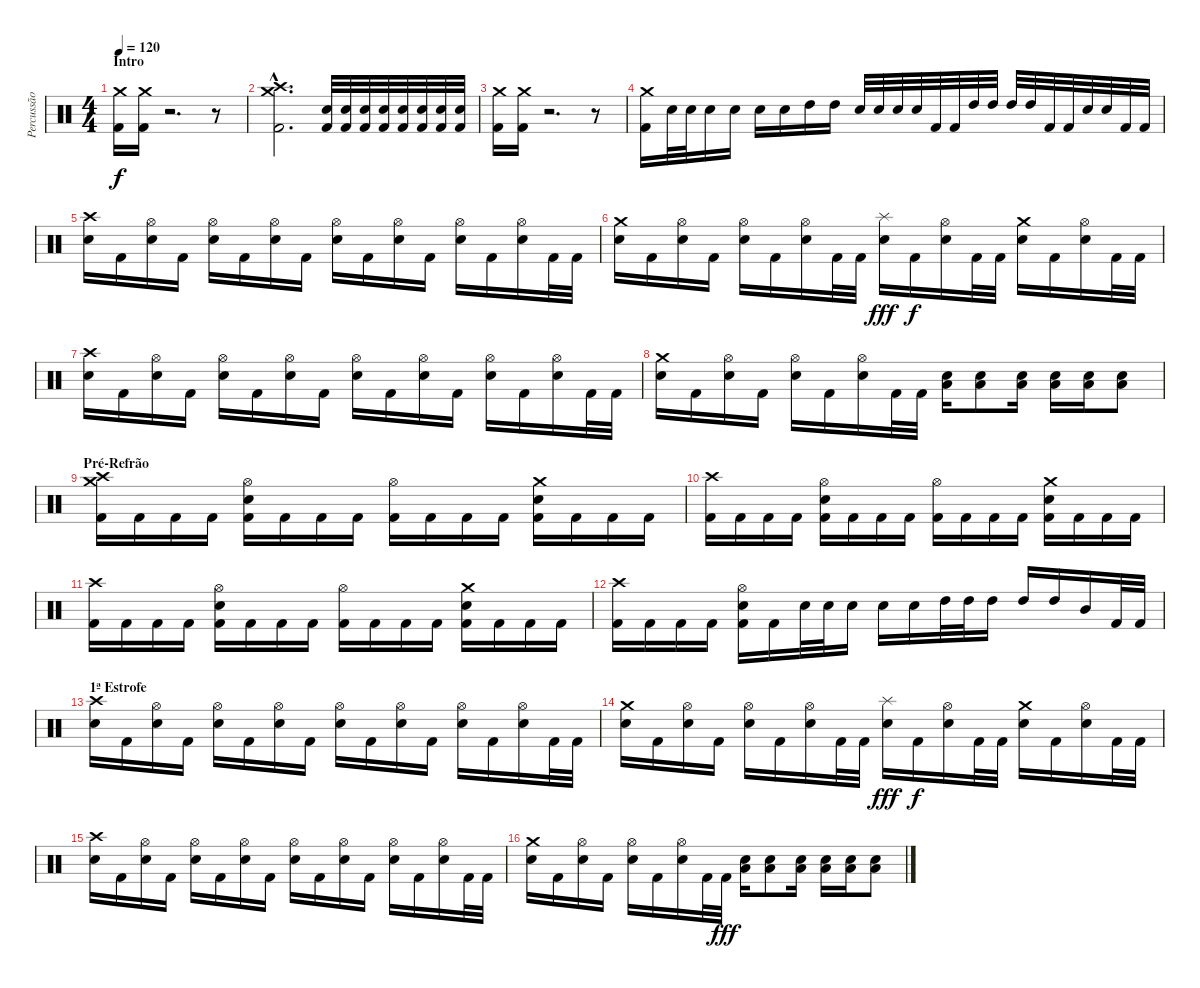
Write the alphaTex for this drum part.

\track ("Percussão" "Percussão") {instrument percussion}
\staff {score}
\articulation defaults
\ts (4 4)
\section ("" "Intro")
\tempo 120
\clef neutral
\ks c
("Crash medium (hit)" "Kick (hit) 2").16{dy f} ("Crash medium (hit)" "Kick (hit) 2").16 r.2{d volume 10} r.8 |
("Crash medium (hit)"{hac} "Crash high (hit)"{hac} "Kick (hit) 2"{hac}).2{d volume 16} ("Electric Snare (hit)" "Kick (hit) 2").32 ("Electric Snare (hit)" "Kick (hit) 2").32 ("Electric Snare (hit)" "Kick (hit) 2").32 ("Electric Snare (hit)" "Kick (hit) 2").32 ("Electric Snare (hit)" "Kick (hit) 2").32 ("Electric Snare (hit)" "Kick (hit) 2").32 ("Electric Snare (hit)" "Kick (hit) 2").32 ("Electric Snare (hit)" "Kick (hit) 2").32 |
("Crash medium (hit)" "Kick (hit) 2").16 ("Crash medium (hit)" "Kick (hit) 2").16 r.2{d volume 10} r.8 |
("Crash medium (hit)" "Kick (hit) 2").16{volume 16} "Electric Snare (hit)".32 "Electric Snare (hit)".32 "Electric Snare (hit)".16 "Electric Snare (hit)".16 "Electric Snare (hit)".16 "Electric Snare (hit)".16 "High Tom (hit)".16 "High Tom (hit)".16 "Electric Snare (hit)".32 "Electric Snare (hit)".32 "Electric Snare (hit)".32 "Electric Snare (hit)".32 "Kick (hit) 2".32 "Kick (hit) 2".32 "High Tom (hit)".32 "High Tom (hit)".32 "High Tom (hit)".32 "High Tom (hit)".32 "Kick (hit) 2".32 "Kick (hit) 2".32 "Electric Snare (hit)".32 "Electric Snare (hit)".32 "Kick (hit) 2".32 "Kick (hit) 2".32 |
("Crash high (hit)" "Electric Snare (hit)").16 "Kick (hit) 2".16 ("Hi-Hat (open)" "Electric Snare (hit)").16 "Kick (hit) 2".16 ("Hi-Hat (open)" "Electric Snare (hit)").16 "Kick (hit) 2".16 ("Hi-Hat (open)" "Electric Snare (hit)").16 "Kick (hit) 2".16 ("Hi-Hat (open)" "Electric Snare (hit)").16 "Kick (hit) 2".16 ("Hi-Hat (open)" "Electric Snare (hit)").16 "Kick (hit) 2".16 ("Hi-Hat (open)" "Electric Snare (hit)").16 "Kick (hit) 2".16 ("Hi-Hat (open)" "Electric Snare (hit)").16 "Kick (hit) 2".32 "Kick (hit) 2".32 |
("Crash medium (hit)" "Electric Snare (hit)").16 "Kick (hit) 2".16 ("Hi-Hat (open)" "Electric Snare (hit)").16 "Kick (hit) 2".16 ("Hi-Hat (open)" "Electric Snare (hit)").16 "Kick (hit) 2".16 ("Hi-Hat (open)" "Electric Snare (hit)").16 "Kick (hit) 2".32 "Kick (hit) 2".32 ("Splash (hit)" "Electric Snare (hit)").16{dy fff} "Kick (hit) 2".16{dy f} ("Hi-Hat (open)" "Electric Snare (hit)").16 "Kick (hit) 2".32 "Kick (hit) 2".32 ("Crash medium (hit)" "Electric Snare (hit)").16 "Kick (hit) 2".16 ("Hi-Hat (open)" "Electric Snare (hit)").16 "Kick (hit) 2".32 "Kick (hit) 2".32 |
("Crash high (hit)" "Electric Snare (hit)").16 "Kick (hit) 2".16 ("Hi-Hat (open)" "Electric Snare (hit)").16 "Kick (hit) 2".16 ("Hi-Hat (open)" "Electric Snare (hit)").16 "Kick (hit) 2".16 ("Hi-Hat (open)" "Electric Snare (hit)").16 "Kick (hit) 2".16 ("Hi-Hat (open)" "Electric Snare (hit)").16 "Kick (hit) 2".16 ("Hi-Hat (open)" "Electric Snare (hit)").16 "Kick (hit) 2".16 ("Hi-Hat (open)" "Electric Snare (hit)").16 "Kick (hit) 2".16 ("Hi-Hat (open)" "Electric Snare (hit)").16 "Kick (hit) 2".32 "Kick (hit) 2".32 |
("Crash medium (hit)" "Electric Snare (hit)").16 "Kick (hit) 2".16 ("Hi-Hat (open)" "Electric Snare (hit)").16 "Kick (hit) 2".16 ("Hi-Hat (open)" "Electric Snare (hit)").16 "Kick (hit) 2".16 ("Hi-Hat (open)" "Electric Snare (hit)").16 "Kick (hit) 2".32 "Kick (hit) 2".32 ("Electric Snare (hit)" "Low Tom (hit)").16 ("Electric Snare (hit)" "Low Tom (hit)").8 ("Electric Snare (hit)" "Low Tom (hit)").16 ("Electric Snare (hit)" "Low Tom (hit)").16 ("Electric Snare (hit)" "Low Tom (hit)").16 ("Electric Snare (hit)" "Low Tom (hit)").8 |
\section ("" "Pré-Refrão")
("Crash medium (hit)" "Crash high (hit)" "Kick (hit) 2").16 "Kick (hit) 2".16 "Kick (hit) 2".16 "Kick (hit) 2".16 ("Hi-Hat (open)" "Electric Snare (hit)" "Kick (hit) 2").16 "Kick (hit) 2".16 "Kick (hit) 2".16 "Kick (hit) 2".16 ("Hi-Hat (open)" "Kick (hit) 2").16 "Kick (hit) 2".16 "Kick (hit) 2".16 "Kick (hit) 2".16 ("Crash medium (hit)" "Electric Snare (hit)" "Kick (hit) 2").16 "Kick (hit) 2".16 "Kick (hit) 2".16 "Kick (hit) 2".16 |
("Crash high (hit)" "Kick (hit) 2").16 "Kick (hit) 2".16 "Kick (hit) 2".16 "Kick (hit) 2".16 ("Hi-Hat (open)" "Electric Snare (hit)" "Kick (hit) 2").16 "Kick (hit) 2".16 "Kick (hit) 2".16 "Kick (hit) 2".16 ("Hi-Hat (open)" "Kick (hit) 2").16 "Kick (hit) 2".16 "Kick (hit) 2".16 "Kick (hit) 2".16 ("Crash medium (hit)" "Electric Snare (hit)" "Kick (hit) 2").16 "Kick (hit) 2".16 "Kick (hit) 2".16 "Kick (hit) 2".16 |
("Crash high (hit)" "Kick (hit) 2").16 "Kick (hit) 2".16 "Kick (hit) 2".16 "Kick (hit) 2".16 ("Hi-Hat (open)" "Electric Snare (hit)" "Kick (hit) 2").16 "Kick (hit) 2".16 "Kick (hit) 2".16 "Kick (hit) 2".16 ("Hi-Hat (open)" "Kick (hit) 2").16 "Kick (hit) 2".16 "Kick (hit) 2".16 "Kick (hit) 2".16 ("Crash medium (hit)" "Electric Snare (hit)" "Kick (hit) 2").16 "Kick (hit) 2".16 "Kick (hit) 2".16 "Kick (hit) 2".16 |
("Crash high (hit)" "Kick (hit) 2").16 "Kick (hit) 2".16 "Kick (hit) 2".16 "Kick (hit) 2".16 ("Hi-Hat (open)" "Electric Snare (hit)" "Kick (hit) 2").16 "Kick (hit) 2".16 "Electric Snare (hit)".32 "Electric Snare (hit)".32 "Electric Snare (hit)".16 "Electric Snare (hit)".16 "Electric Snare (hit)".16 "High Tom (hit)".32 "High Tom (hit)".32 "High Tom (hit)".16 "High Tom (hit)".16 "High Tom (hit)".16 "Mid Tom (hit)".16 "Kick (hit) 2".32 "Kick (hit) 2".32 |
\section ("" "1ª Estrofe")
("Crash high (hit)" "Electric Snare (hit)").16 "Kick (hit) 2".16 ("Hi-Hat (open)" "Electric Snare (hit)").16 "Kick (hit) 2".16 ("Hi-Hat (open)" "Electric Snare (hit)").16 "Kick (hit) 2".16 ("Hi-Hat (open)" "Electric Snare (hit)").16 "Kick (hit) 2".16 ("Hi-Hat (open)" "Electric Snare (hit)").16 "Kick (hit) 2".16 ("Hi-Hat (open)" "Electric Snare (hit)").16 "Kick (hit) 2".16 ("Hi-Hat (open)" "Electric Snare (hit)").16 "Kick (hit) 2".16 ("Hi-Hat (open)" "Electric Snare (hit)").16 "Kick (hit) 2".32 "Kick (hit) 2".32 |
("Crash medium (hit)" "Electric Snare (hit)").16 "Kick (hit) 2".16 ("Hi-Hat (open)" "Electric Snare (hit)").16 "Kick (hit) 2".16 ("Hi-Hat (open)" "Electric Snare (hit)").16 "Kick (hit) 2".16 ("Hi-Hat (open)" "Electric Snare (hit)").16 "Kick (hit) 2".32 "Kick (hit) 2".32 ("Splash (hit)" "Electric Snare (hit)").16{dy fff} "Kick (hit) 2".16{dy f} ("Hi-Hat (open)" "Electric Snare (hit)").16 "Kick (hit) 2".32 "Kick (hit) 2".32 ("Crash medium (hit)" "Electric Snare (hit)").16 "Kick (hit) 2".16 ("Hi-Hat (open)" "Electric Snare (hit)").16 "Kick (hit) 2".32 "Kick (hit) 2".32 |
("Crash high (hit)" "Electric Snare (hit)").16 "Kick (hit) 2".16 ("Hi-Hat (open)" "Electric Snare (hit)").16 "Kick (hit) 2".16 ("Hi-Hat (open)" "Electric Snare (hit)").16 "Kick (hit) 2".16 ("Hi-Hat (open)" "Electric Snare (hit)").16 "Kick (hit) 2".16 ("Hi-Hat (open)" "Electric Snare (hit)").16 "Kick (hit) 2".16 ("Hi-Hat (open)" "Electric Snare (hit)").16 "Kick (hit) 2".16 ("Hi-Hat (open)" "Electric Snare (hit)").16 "Kick (hit) 2".16 ("Hi-Hat (open)" "Electric Snare (hit)").16 "Kick (hit) 2".32 "Kick (hit) 2".32 |
("Crash medium (hit)" "Electric Snare (hit)").16 "Kick (hit) 2".16 ("Hi-Hat (open)" "Electric Snare (hit)").16 "Kick (hit) 2".16 ("Hi-Hat (open)" "Electric Snare (hit)").16 "Kick (hit) 2".16 ("Hi-Hat (open)" "Electric Snare (hit)").16 "Kick (hit) 2".32 "Kick (hit) 2".32{dy fff} ("Electric Snare (hit)" "Low Tom (hit)").16 ("Electric Snare (hit)" "Low Tom (hit)").8 ("Electric Snare (hit)" "Low Tom (hit)").16 ("Electric Snare (hit)" "Low Tom (hit)").16 ("Electric Snare (hit)" "Low Tom (hit)").16 ("Electric Snare (hit)" "Low Tom (hit)").8
